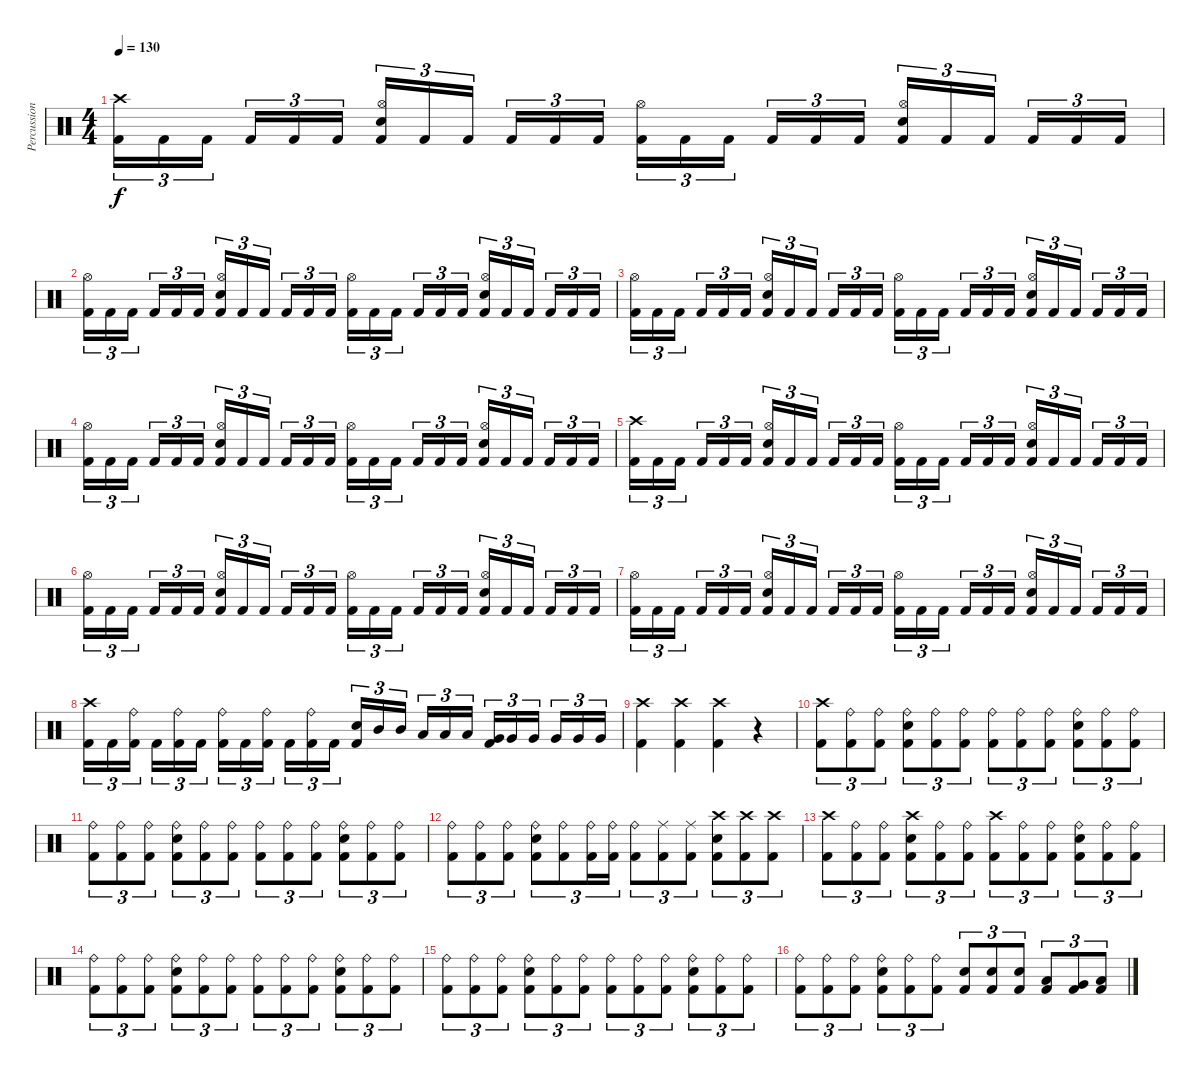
\track ("Percussion" "Percussion") {instrument percussion}
\staff {score}
\articulation defaults
\ts (4 4)
\tempo 130
\clef neutral
\ks c
("Crash high (hit)" "Kick (hit) 2").16{tu (3 2) dy f} "Kick (hit) 2".16{tu (3 2)} "Kick (hit) 2".16{tu (3 2) beam splitsecondary} "Kick (hit) 2".16{tu (3 2)} "Kick (hit) 2".16{tu (3 2)} "Kick (hit) 2".16{tu (3 2)} ("Hi-Hat (open)" "Electric Snare (hit)" "Kick (hit) 2").16{tu (3 2)} "Kick (hit) 2".16{tu (3 2)} "Kick (hit) 2".16{tu (3 2) beam splitsecondary} "Kick (hit) 2".16{tu (3 2)} "Kick (hit) 2".16{tu (3 2)} "Kick (hit) 2".16{tu (3 2)} ("Hi-Hat (open)" "Kick (hit) 2").16{tu (3 2)} "Kick (hit) 2".16{tu (3 2)} "Kick (hit) 2".16{tu (3 2) beam splitsecondary} "Kick (hit) 2".16{tu (3 2)} "Kick (hit) 2".16{tu (3 2)} "Kick (hit) 2".16{tu (3 2)} ("Hi-Hat (open)" "Electric Snare (hit)" "Kick (hit) 2").16{tu (3 2)} "Kick (hit) 2".16{tu (3 2)} "Kick (hit) 2".16{tu (3 2) beam splitsecondary} "Kick (hit) 2".16{tu (3 2)} "Kick (hit) 2".16{tu (3 2)} "Kick (hit) 2".16{tu (3 2)} |
("Hi-Hat (open)" "Kick (hit) 2").16{tu (3 2)} "Kick (hit) 2".16{tu (3 2)} "Kick (hit) 2".16{tu (3 2) beam splitsecondary} "Kick (hit) 2".16{tu (3 2)} "Kick (hit) 2".16{tu (3 2)} "Kick (hit) 2".16{tu (3 2)} ("Hi-Hat (open)" "Electric Snare (hit)" "Kick (hit) 2").16{tu (3 2)} "Kick (hit) 2".16{tu (3 2)} "Kick (hit) 2".16{tu (3 2) beam splitsecondary} "Kick (hit) 2".16{tu (3 2)} "Kick (hit) 2".16{tu (3 2)} "Kick (hit) 2".16{tu (3 2)} ("Hi-Hat (open)" "Kick (hit) 2").16{tu (3 2)} "Kick (hit) 2".16{tu (3 2)} "Kick (hit) 2".16{tu (3 2) beam splitsecondary} "Kick (hit) 2".16{tu (3 2)} "Kick (hit) 2".16{tu (3 2)} "Kick (hit) 2".16{tu (3 2)} ("Hi-Hat (open)" "Electric Snare (hit)" "Kick (hit) 2").16{tu (3 2)} "Kick (hit) 2".16{tu (3 2)} "Kick (hit) 2".16{tu (3 2) beam splitsecondary} "Kick (hit) 2".16{tu (3 2)} "Kick (hit) 2".16{tu (3 2)} "Kick (hit) 2".16{tu (3 2)} |
("Hi-Hat (open)" "Kick (hit) 2").16{tu (3 2)} "Kick (hit) 2".16{tu (3 2)} "Kick (hit) 2".16{tu (3 2) beam splitsecondary} "Kick (hit) 2".16{tu (3 2)} "Kick (hit) 2".16{tu (3 2)} "Kick (hit) 2".16{tu (3 2)} ("Hi-Hat (open)" "Electric Snare (hit)" "Kick (hit) 2").16{tu (3 2)} "Kick (hit) 2".16{tu (3 2)} "Kick (hit) 2".16{tu (3 2) beam splitsecondary} "Kick (hit) 2".16{tu (3 2)} "Kick (hit) 2".16{tu (3 2)} "Kick (hit) 2".16{tu (3 2)} ("Hi-Hat (open)" "Kick (hit) 2").16{tu (3 2)} "Kick (hit) 2".16{tu (3 2)} "Kick (hit) 2".16{tu (3 2) beam splitsecondary} "Kick (hit) 2".16{tu (3 2)} "Kick (hit) 2".16{tu (3 2)} "Kick (hit) 2".16{tu (3 2)} ("Hi-Hat (open)" "Electric Snare (hit)" "Kick (hit) 2").16{tu (3 2)} "Kick (hit) 2".16{tu (3 2)} "Kick (hit) 2".16{tu (3 2) beam splitsecondary} "Kick (hit) 2".16{tu (3 2)} "Kick (hit) 2".16{tu (3 2)} "Kick (hit) 2".16{tu (3 2)} |
("Hi-Hat (open)" "Kick (hit) 2").16{tu (3 2)} "Kick (hit) 2".16{tu (3 2)} "Kick (hit) 2".16{tu (3 2) beam splitsecondary} "Kick (hit) 2".16{tu (3 2)} "Kick (hit) 2".16{tu (3 2)} "Kick (hit) 2".16{tu (3 2)} ("Hi-Hat (open)" "Electric Snare (hit)" "Kick (hit) 2").16{tu (3 2)} "Kick (hit) 2".16{tu (3 2)} "Kick (hit) 2".16{tu (3 2) beam splitsecondary} "Kick (hit) 2".16{tu (3 2)} "Kick (hit) 2".16{tu (3 2)} "Kick (hit) 2".16{tu (3 2)} ("Hi-Hat (open)" "Kick (hit) 2").16{tu (3 2)} "Kick (hit) 2".16{tu (3 2)} "Kick (hit) 2".16{tu (3 2) beam splitsecondary} "Kick (hit) 2".16{tu (3 2)} "Kick (hit) 2".16{tu (3 2)} "Kick (hit) 2".16{tu (3 2)} ("Hi-Hat (open)" "Electric Snare (hit)" "Kick (hit) 2").16{tu (3 2)} "Kick (hit) 2".16{tu (3 2)} "Kick (hit) 2".16{tu (3 2) beam splitsecondary} "Kick (hit) 2".16{tu (3 2)} "Kick (hit) 2".16{tu (3 2)} "Kick (hit) 2".16{tu (3 2)} |
("Crash high (hit)" "Kick (hit) 2").16{tu (3 2)} "Kick (hit) 2".16{tu (3 2)} "Kick (hit) 2".16{tu (3 2) beam splitsecondary} "Kick (hit) 2".16{tu (3 2)} "Kick (hit) 2".16{tu (3 2)} "Kick (hit) 2".16{tu (3 2)} ("Hi-Hat (open)" "Electric Snare (hit)" "Kick (hit) 2").16{tu (3 2)} "Kick (hit) 2".16{tu (3 2)} "Kick (hit) 2".16{tu (3 2) beam splitsecondary} "Kick (hit) 2".16{tu (3 2)} "Kick (hit) 2".16{tu (3 2)} "Kick (hit) 2".16{tu (3 2)} ("Hi-Hat (open)" "Kick (hit) 2").16{tu (3 2)} "Kick (hit) 2".16{tu (3 2)} "Kick (hit) 2".16{tu (3 2) beam splitsecondary} "Kick (hit) 2".16{tu (3 2)} "Kick (hit) 2".16{tu (3 2)} "Kick (hit) 2".16{tu (3 2)} ("Hi-Hat (open)" "Electric Snare (hit)" "Kick (hit) 2").16{tu (3 2)} "Kick (hit) 2".16{tu (3 2)} "Kick (hit) 2".16{tu (3 2) beam splitsecondary} "Kick (hit) 2".16{tu (3 2)} "Kick (hit) 2".16{tu (3 2)} "Kick (hit) 2".16{tu (3 2)} |
("Hi-Hat (open)" "Kick (hit) 2").16{tu (3 2)} "Kick (hit) 2".16{tu (3 2)} "Kick (hit) 2".16{tu (3 2) beam splitsecondary} "Kick (hit) 2".16{tu (3 2)} "Kick (hit) 2".16{tu (3 2)} "Kick (hit) 2".16{tu (3 2)} ("Hi-Hat (open)" "Electric Snare (hit)" "Kick (hit) 2").16{tu (3 2)} "Kick (hit) 2".16{tu (3 2)} "Kick (hit) 2".16{tu (3 2) beam splitsecondary} "Kick (hit) 2".16{tu (3 2)} "Kick (hit) 2".16{tu (3 2)} "Kick (hit) 2".16{tu (3 2)} ("Hi-Hat (open)" "Kick (hit) 2").16{tu (3 2)} "Kick (hit) 2".16{tu (3 2)} "Kick (hit) 2".16{tu (3 2) beam splitsecondary} "Kick (hit) 2".16{tu (3 2)} "Kick (hit) 2".16{tu (3 2)} "Kick (hit) 2".16{tu (3 2)} ("Hi-Hat (open)" "Electric Snare (hit)" "Kick (hit) 2").16{tu (3 2)} "Kick (hit) 2".16{tu (3 2)} "Kick (hit) 2".16{tu (3 2) beam splitsecondary} "Kick (hit) 2".16{tu (3 2)} "Kick (hit) 2".16{tu (3 2)} "Kick (hit) 2".16{tu (3 2)} |
("Hi-Hat (open)" "Kick (hit) 2").16{tu (3 2)} "Kick (hit) 2".16{tu (3 2)} "Kick (hit) 2".16{tu (3 2) beam splitsecondary} "Kick (hit) 2".16{tu (3 2)} "Kick (hit) 2".16{tu (3 2)} "Kick (hit) 2".16{tu (3 2)} ("Hi-Hat (open)" "Electric Snare (hit)" "Kick (hit) 2").16{tu (3 2)} "Kick (hit) 2".16{tu (3 2)} "Kick (hit) 2".16{tu (3 2) beam splitsecondary} "Kick (hit) 2".16{tu (3 2)} "Kick (hit) 2".16{tu (3 2)} "Kick (hit) 2".16{tu (3 2)} ("Hi-Hat (open)" "Kick (hit) 2").16{tu (3 2)} "Kick (hit) 2".16{tu (3 2)} "Kick (hit) 2".16{tu (3 2) beam splitsecondary} "Kick (hit) 2".16{tu (3 2)} "Kick (hit) 2".16{tu (3 2)} "Kick (hit) 2".16{tu (3 2)} ("Hi-Hat (open)" "Electric Snare (hit)" "Kick (hit) 2").16{tu (3 2)} "Kick (hit) 2".16{tu (3 2)} "Kick (hit) 2".16{tu (3 2) beam splitsecondary} "Kick (hit) 2".16{tu (3 2)} "Kick (hit) 2".16{tu (3 2)} "Kick (hit) 2".16{tu (3 2)} |
("Crash high (hit)" "Kick (hit) 2").16{tu (3 2)} "Kick (hit) 2".16{tu (3 2)} ("Ride (bell)" "Kick (hit) 2").16{tu (3 2) beam splitsecondary} "Kick (hit) 2".16{tu (3 2)} ("Ride (bell)" "Kick (hit) 2").16{tu (3 2)} "Kick (hit) 2".16{tu (3 2)} ("Ride (bell)" "Kick (hit) 2").16{tu (3 2)} "Kick (hit) 2".16{tu (3 2)} ("Ride (bell)" "Kick (hit) 2").16{tu (3 2) beam splitsecondary} "Kick (hit) 2".16{tu (3 2)} ("Ride (bell)" "Kick (hit) 2").16{tu (3 2)} "Kick (hit) 2".16{tu (3 2)} ("Electric Snare (hit)" "Kick (hit) 2").16{tu (3 2)} "Mid Tom (hit)".16{tu (3 2)} "Mid Tom (hit)".16{tu (3 2) beam splitsecondary} "Low Tom (hit)".16{tu (3 2)} "Low Tom (hit)".16{tu (3 2)} "Low Tom (hit)".16{tu (3 2)} ("Very Low Tom (hit)" "Kick (hit) 2").16{tu (3 2)} "Very Low Tom (hit)".16{tu (3 2)} "Very Low Tom (hit)".16{tu (3 2) beam splitsecondary} "Very Low Tom (hit)".16{tu (3 2)} "Very Low Tom (hit)".16{tu (3 2)} "Very Low Tom (hit)".16{tu (3 2)} |
("Crash high (hit)" "Kick (hit) 2").4 ("Crash high (hit)" "Kick (hit) 2").4 ("Crash high (hit)" "Kick (hit) 2").4 r.4 |
("Crash high (hit)" "Kick (hit) 2").8{tu (3 2)} ("Ride (bell)" "Kick (hit) 2").8{tu (3 2)} ("Ride (bell)" "Kick (hit) 2").8{tu (3 2)} ("Ride (bell)" "Electric Snare (hit)" "Kick (hit) 2").8{tu (3 2)} ("Ride (bell)" "Kick (hit) 2").8{tu (3 2)} ("Ride (bell)" "Kick (hit) 2").8{tu (3 2)} ("Ride (bell)" "Kick (hit) 2").8{tu (3 2)} ("Ride (bell)" "Kick (hit) 2").8{tu (3 2)} ("Ride (bell)" "Kick (hit) 2").8{tu (3 2)} ("Ride (bell)" "Electric Snare (hit)" "Kick (hit) 2").8{tu (3 2)} ("Ride (bell)" "Kick (hit) 2").8{tu (3 2)} ("Ride (bell)" "Kick (hit) 2").8{tu (3 2)} |
("Ride (bell)" "Kick (hit) 2").8{tu (3 2)} ("Ride (bell)" "Kick (hit) 2").8{tu (3 2)} ("Ride (bell)" "Kick (hit) 2").8{tu (3 2)} ("Ride (bell)" "Electric Snare (hit)" "Kick (hit) 2").8{tu (3 2)} ("Ride (bell)" "Kick (hit) 2").8{tu (3 2)} ("Ride (bell)" "Kick (hit) 2").8{tu (3 2)} ("Ride (bell)" "Kick (hit) 2").8{tu (3 2)} ("Ride (bell)" "Kick (hit) 2").8{tu (3 2)} ("Ride (bell)" "Kick (hit) 2").8{tu (3 2)} ("Ride (bell)" "Electric Snare (hit)" "Kick (hit) 2").8{tu (3 2)} ("Ride (bell)" "Kick (hit) 2").8{tu (3 2)} ("Ride (bell)" "Kick (hit) 2").8{tu (3 2)} |
("Ride (bell)" "Kick (hit) 2").8{tu (3 2)} ("Ride (bell)" "Kick (hit) 2").8{tu (3 2)} ("Ride (bell)" "Kick (hit) 2").8{tu (3 2)} ("Ride (bell)" "Electric Snare (hit)" "Kick (hit) 2").8{tu (3 2)} ("Ride (bell)" "Kick (hit) 2").8{tu (3 2)} ("Ride (bell)" "Kick (hit) 2").16{tu (3 2)} ("Ride (bell)" "Kick (hit) 2").16{tu (3 2)} ("Ride (bell)" "Kick (hit) 2").8{tu (3 2)} ("Ride (middle)" "Kick (hit) 2").8{tu (3 2)} ("Ride (middle)" "Kick (hit) 2").8{tu (3 2)} ("Crash high (hit)" "Electric Snare (hit)" "Kick (hit) 2").8{tu (3 2)} ("Crash high (hit)" "Kick (hit) 2").8{tu (3 2)} ("Crash high (hit)" "Kick (hit) 2").8{tu (3 2)} |
("Crash high (hit)" "Kick (hit) 2").8{tu (3 2)} ("Ride (bell)" "Kick (hit) 2").8{tu (3 2)} ("Ride (bell)" "Kick (hit) 2").8{tu (3 2)} ("Crash high (hit)" "Electric Snare (hit)" "Kick (hit) 2").8{tu (3 2)} ("Ride (bell)" "Kick (hit) 2").8{tu (3 2)} ("Ride (bell)" "Kick (hit) 2").8{tu (3 2)} ("Crash high (hit)" "Kick (hit) 2").8{tu (3 2)} ("Ride (bell)" "Kick (hit) 2").8{tu (3 2)} ("Ride (bell)" "Kick (hit) 2").8{tu (3 2)} ("Ride (bell)" "Electric Snare (hit)" "Kick (hit) 2").8{tu (3 2)} ("Ride (bell)" "Kick (hit) 2").8{tu (3 2)} ("Ride (bell)" "Kick (hit) 2").8{tu (3 2)} |
("Ride (bell)" "Kick (hit) 2").8{tu (3 2)} ("Ride (bell)" "Kick (hit) 2").8{tu (3 2)} ("Ride (bell)" "Kick (hit) 2").8{tu (3 2)} ("Ride (bell)" "Electric Snare (hit)" "Kick (hit) 2").8{tu (3 2)} ("Ride (bell)" "Kick (hit) 2").8{tu (3 2)} ("Ride (bell)" "Kick (hit) 2").8{tu (3 2)} ("Ride (bell)" "Kick (hit) 2").8{tu (3 2)} ("Ride (bell)" "Kick (hit) 2").8{tu (3 2)} ("Ride (bell)" "Kick (hit) 2").8{tu (3 2)} ("Ride (bell)" "Electric Snare (hit)" "Kick (hit) 2").8{tu (3 2)} ("Ride (bell)" "Kick (hit) 2").8{tu (3 2)} ("Ride (bell)" "Kick (hit) 2").8{tu (3 2)} |
("Ride (bell)" "Kick (hit) 2").8{tu (3 2)} ("Ride (bell)" "Kick (hit) 2").8{tu (3 2)} ("Ride (bell)" "Kick (hit) 2").8{tu (3 2)} ("Ride (bell)" "Electric Snare (hit)" "Kick (hit) 2").8{tu (3 2)} ("Ride (bell)" "Kick (hit) 2").8{tu (3 2)} ("Ride (bell)" "Kick (hit) 2").8{tu (3 2)} ("Ride (bell)" "Kick (hit) 2").8{tu (3 2)} ("Ride (bell)" "Kick (hit) 2").8{tu (3 2)} ("Ride (bell)" "Kick (hit) 2").8{tu (3 2)} ("Ride (bell)" "Electric Snare (hit)" "Kick (hit) 2").8{tu (3 2)} ("Ride (bell)" "Kick (hit) 2").8{tu (3 2)} ("Ride (bell)" "Kick (hit) 2").8{tu (3 2)} |
("Ride (bell)" "Kick (hit) 2").8{tu (3 2)} ("Ride (bell)" "Kick (hit) 2").8{tu (3 2)} ("Ride (bell)" "Kick (hit) 2").8{tu (3 2)} ("Ride (bell)" "Electric Snare (hit)" "Kick (hit) 2").8{tu (3 2)} ("Ride (bell)" "Kick (hit) 2").8{tu (3 2)} ("Ride (bell)" "Kick (hit) 2").8{tu (3 2)} ("Electric Snare (hit)" "Kick (hit) 2").8{tu (3 2)} ("Electric Snare (hit)" "Kick (hit) 2").8{tu (3 2)} ("Electric Snare (hit)" "Kick (hit) 2").8{tu (3 2)} ("Low Tom (hit)" "Kick (hit) 2").8{tu (3 2)} ("Very Low Tom (hit)" "Kick (hit) 2").8{tu (3 2)} ("Low Floor Tom (hit)" "Kick (hit) 2").8{tu (3 2)}
